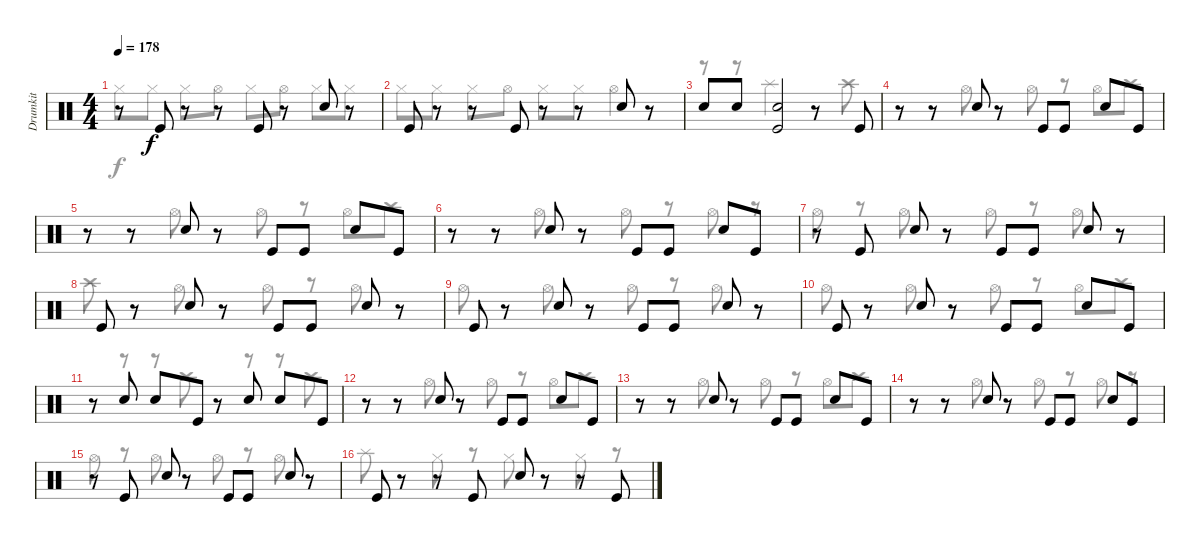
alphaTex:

\track ("Drumkit" "Drumkit") {instrument percussion}
\staff {score}
\articulation defaults
\voice
\ts (4 4)
\tempo 178
\clef neutral
\ks c
r.8{dy f} "Kick (hit)".8 r.8 r.8 "Kick (hit)".8 r.8 "Snare (hit) 2".8 r.8 |
"Kick (hit)".8 r.8 r.8 "Kick (hit)".8 r.8 r.8 "Snare (hit) 2".8 r.8 |
"Snare (hit) 2".8 "Snare (hit) 2".8 ("Snare (hit) 2" "Kick (hit)").2 r.8 "Kick (hit)".8 |
\section ("" "")
r.8 r.8 "Snare (hit) 2".8 r.8 "Kick (hit)".8 "Kick (hit)".8 "Snare (hit) 2".8 "Kick (hit)".8 |
r.8 r.8 "Snare (hit) 2".8 r.8 "Kick (hit)".8 "Kick (hit)".8 "Snare (hit) 2".8 "Kick (hit)".8 |
r.8 r.8 "Snare (hit) 2".8 r.8 "Kick (hit)".8 "Kick (hit)".8 "Snare (hit) 2".8 "Kick (hit)".8 |
r.8 "Kick (hit)".8 "Snare (hit) 2".8 r.8 "Kick (hit)".8 "Kick (hit)".8 "Snare (hit) 2".8 r.8 |
"Kick (hit)".8 r.8 "Snare (hit) 2".8 r.8 "Kick (hit)".8 "Kick (hit)".8 "Snare (hit) 2".8 r.8 |
"Kick (hit)".8 r.8 "Snare (hit) 2".8 r.8 "Kick (hit)".8 "Kick (hit)".8 "Snare (hit) 2".8 r.8 |
"Kick (hit)".8 r.8 "Snare (hit) 2".8 r.8 "Kick (hit)".8 "Kick (hit)".8 "Snare (hit) 2".8 "Kick (hit)".8 |
r.8 "Snare (hit) 2".8 "Snare (hit) 2".8 "Kick (hit)".8 r.8 "Snare (hit) 2".8 "Snare (hit) 2".8 "Kick (hit)".8 |
r.8 r.8 "Snare (hit) 2".8 r.8 "Kick (hit)".8 "Kick (hit)".8 "Snare (hit) 2".8 "Kick (hit)".8 |
r.8 r.8 "Snare (hit) 2".8 r.8 "Kick (hit)".8 "Kick (hit)".8 "Snare (hit) 2".8 "Kick (hit)".8 |
r.8 r.8 "Snare (hit) 2".8 r.8 "Kick (hit)".8 "Kick (hit)".8 "Snare (hit) 2".8 "Kick (hit)".8 |
r.8 "Kick (hit)".8 "Snare (hit) 2".8 r.8 "Kick (hit)".8 "Kick (hit)".8 "Snare (hit) 2".8 r.8 |
"Kick (hit)".8 r.8 r.8 "Kick (hit)".8 "Snare (hit) 2".8 r.8 r.8 "Kick (hit)".8
\voice
\clef neutral
\ottava regular
\simile none
\ks c "Hi-Hat (closed)".8{dy f} "Hi-Hat (closed)".8 "Hi-Hat (closed)".8 "Hi-Hat (open)".8 "Hi-Hat (closed)".8 "Hi-Hat (open)".8 "Hi-Hat (closed)".8 "Hi-Hat (closed)".8
|
"Hi-Hat (closed)".8 "Hi-Hat (closed)".8 "Hi-Hat (closed)".8 "Hi-Hat (open)".8 "Hi-Hat (closed)".8 "Hi-Hat (closed)".8 "Hi-Hat (open)".4 |
r.8 r.8 "Splash (hit)".2 r.8 "Crash high (hit)".8 |
r.8 r.8 "Hi-Hat (open)".8 r.8 "Hi-Hat (open)".8 r.8 "Hi-Hat (open)".8 "Crash high (hit)".8 |
r.8 r.8 "Hi-Hat (open)".8 r.8 "Hi-Hat (open)".8 r.8 "Hi-Hat (open)".8 "Crash high (hit)".8 |
r.8 r.8 "Hi-Hat (open)".8 r.8 "Hi-Hat (open)".8 r.8 "Hi-Hat (open)".8 r.8 |
"Hi-Hat (open)".8 r.8 "Hi-Hat (open)".8 r.8 "Hi-Hat (open)".8 r.8 "Hi-Hat (open)".8 r.8 |
"Crash high (hit)".8 r.8 "Hi-Hat (open)".8 r.8 "Hi-Hat (open)".8 r.8 "Hi-Hat (open)".8 r.8 |
"Hi-Hat (open)".8 r.8 "Hi-Hat (open)".8 r.8 "Hi-Hat (open)".8 r.8 "Hi-Hat (open)".8 r.8 |
"Hi-Hat (open)".8 r.8 "Hi-Hat (open)".8 r.8 "Hi-Hat (open)".8 r.8 "Hi-Hat (open)".8 "Crash high (hit)".8 |
r.8 r.8 r.8 "Crash high (hit)".8 r.8 r.8 r.8 "Crash high (hit)".8 |
r.8 r.8 "Hi-Hat (open)".8 r.8 "Hi-Hat (open)".8 r.8 "Hi-Hat (open)".8 "Crash high (hit)".8 |
r.8 r.8 "Hi-Hat (open)".8 r.8 "Hi-Hat (open)".8 r.8 "Hi-Hat (open)".8 "Crash high (hit)".8 |
r.8 r.8 "Hi-Hat (open)".8 r.8 "Hi-Hat (open)".8 r.8 "Hi-Hat (open)".8 r.8 |
"Hi-Hat (open)".8 r.8 "Hi-Hat (open)".8 r.8 "Hi-Hat (open)".8 r.8 "Hi-Hat (open)".8 r.8 |
"Splash (hit)".8 r.8 "Hi-Hat (closed)".8 r.8 "Hi-Hat (closed)".8 r.8 "Hi-Hat (closed)".8 r.8
